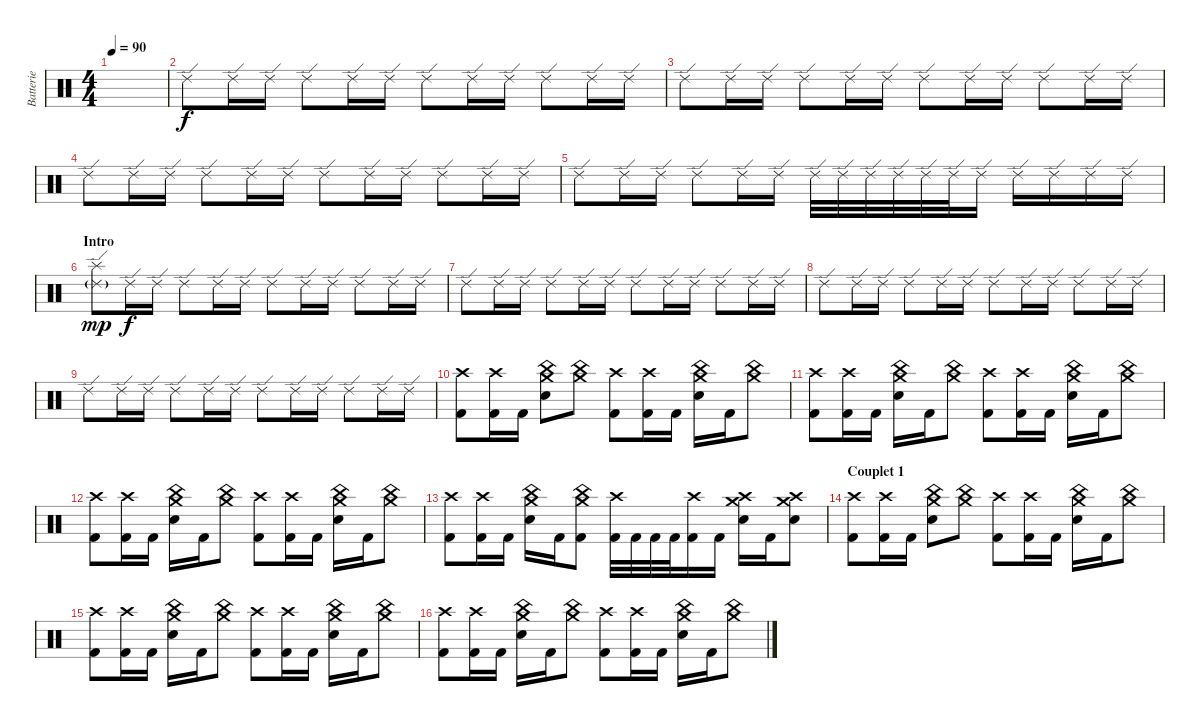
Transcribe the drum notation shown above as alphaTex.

\track ("Batterie" "Batterie") {instrument percussion}
\staff {score}
\articulation defaults
\ts (4 4)
\tempo 90
\clef neutral
\ks c
|
"Ride (edge) 2".8{volume 10} "Ride (edge) 2".16 "Ride (edge) 2".16 "Ride (edge) 2".8 "Ride (edge) 2".16 "Ride (edge) 2".16 "Ride (edge) 2".8 "Ride (edge) 2".16 "Ride (edge) 2".16 "Ride (edge) 2".8 "Ride (edge) 2".16 "Ride (edge) 2".16 |
"Ride (edge) 2".8 "Ride (edge) 2".16 "Ride (edge) 2".16 "Ride (edge) 2".8 "Ride (edge) 2".16 "Ride (edge) 2".16 "Ride (edge) 2".8 "Ride (edge) 2".16 "Ride (edge) 2".16 "Ride (edge) 2".8 "Ride (edge) 2".16 "Ride (edge) 2".16 |
"Ride (edge) 2".8 "Ride (edge) 2".16 "Ride (edge) 2".16 "Ride (edge) 2".8 "Ride (edge) 2".16 "Ride (edge) 2".16 "Ride (edge) 2".8 "Ride (edge) 2".16 "Ride (edge) 2".16 "Ride (edge) 2".8 "Ride (edge) 2".16 "Ride (edge) 2".16 |
"Ride (edge) 2".8 "Ride (edge) 2".16 "Ride (edge) 2".16 "Ride (edge) 2".8 "Ride (edge) 2".16 "Ride (edge) 2".16 "Ride (edge) 2".32 "Ride (edge) 2".32 "Ride (edge) 2".32 "Ride (edge) 2".32 "Ride (edge) 2".32 "Ride (edge) 2".32 "Ride (edge) 2".16 "Ride (edge) 2".16 "Ride (edge) 2".16 "Ride (edge) 2".16 "Ride (edge) 2".16 |
\section ("" "Intro")
("Splash (hit)" "Ride (edge) 2"{g}).8{dy mp} "Ride (edge) 2".16{dy f} "Ride (edge) 2".16 "Ride (edge) 2".8 "Ride (edge) 2".16 "Ride (edge) 2".16 "Ride (edge) 2".8 "Ride (edge) 2".16 "Ride (edge) 2".16 "Ride (edge) 2".8 "Ride (edge) 2".16 "Ride (edge) 2".16 |
"Ride (edge) 2".8 "Ride (edge) 2".16 "Ride (edge) 2".16 "Ride (edge) 2".8 "Ride (edge) 2".16 "Ride (edge) 2".16 "Ride (edge) 2".8 "Ride (edge) 2".16 "Ride (edge) 2".16 "Ride (edge) 2".8 "Ride (edge) 2".16 "Ride (edge) 2".16 |
"Ride (edge) 2".8 "Ride (edge) 2".16 "Ride (edge) 2".16 "Ride (edge) 2".8 "Ride (edge) 2".16 "Ride (edge) 2".16 "Ride (edge) 2".8 "Ride (edge) 2".16 "Ride (edge) 2".16 "Ride (edge) 2".8 "Ride (edge) 2".16 "Ride (edge) 2".16 |
"Ride (edge) 2".8 "Ride (edge) 2".16 "Ride (edge) 2".16 "Ride (edge) 2".8 "Ride (edge) 2".16 "Ride (edge) 2".16 "Ride (edge) 2".8 "Ride (edge) 2".16 "Ride (edge) 2".16 "Ride (edge) 2".8 "Ride (edge) 2".16 "Ride (edge) 2".16 |
("Crash high (hit)" "Kick (hit) 2").8{volume 16} ("Crash high (hit)" "Kick (hit) 2").16 "Kick (hit) 2".16 ("China (hit)" "Crash medium (hit)" "Snare (hit) 2").8 ("China (hit)" "Crash medium (hit)").8 ("Crash high (hit)" "Kick (hit) 2").8 ("Crash high (hit)" "Kick (hit) 2").16 "Kick (hit) 2".16 ("China (hit)" "Crash medium (hit)" "Snare (hit) 2").16 "Kick (hit) 2".16 ("China (hit)" "Crash medium (hit)").8 |
("Crash high (hit)" "Kick (hit) 2").8 ("Crash high (hit)" "Kick (hit) 2").16 "Kick (hit) 2".16 ("China (hit)" "Crash medium (hit)" "Snare (hit) 2").16 "Kick (hit) 2".16 ("China (hit)" "Crash medium (hit)").8 ("Crash high (hit)" "Kick (hit) 2").8 ("Crash high (hit)" "Kick (hit) 2").16 "Kick (hit) 2".16 ("China (hit)" "Crash medium (hit)" "Snare (hit) 2").16 "Kick (hit) 2".16 ("China (hit)" "Crash medium (hit)").8 |
("Crash high (hit)" "Kick (hit) 2").8 ("Crash high (hit)" "Kick (hit) 2").16 "Kick (hit) 2".16 ("China (hit)" "Crash medium (hit)" "Snare (hit) 2").16 "Kick (hit) 2".16 ("China (hit)" "Crash medium (hit)").8 ("Crash high (hit)" "Kick (hit) 2").8 ("Crash high (hit)" "Kick (hit) 2").16 "Kick (hit) 2".16 ("China (hit)" "Crash medium (hit)" "Snare (hit) 2").16 "Kick (hit) 2".16 ("China (hit)" "Crash medium (hit)").8 |
("Crash high (hit)" "Kick (hit) 2").8 ("Crash high (hit)" "Kick (hit) 2").16 "Kick (hit) 2".16 ("China (hit)" "Crash medium (hit)" "Snare (hit) 2").16 "Kick (hit) 2".16 ("China (hit)" "Crash medium (hit)" "Kick (hit) 2").8 ("Crash high (hit)" "Kick (hit) 2").32 "Kick (hit) 2".32 "Kick (hit) 2".32 "Kick (hit) 2".32 ("Crash high (hit)" "Kick (hit) 2").16 "Kick (hit) 2".16 ("Crash high (hit)" "Crash medium (hit)" "Snare (hit) 2").16 "Kick (hit) 2".16 ("Crash high (hit)" "Crash medium (hit)" "Snare (hit) 2").8 |
\section ("" "Couplet 1")
("Crash high (hit)" "Kick (hit) 2").8 ("Crash high (hit)" "Kick (hit) 2").16 "Kick (hit) 2".16 ("China (hit)" "Crash medium (hit)" "Snare (hit) 2").8 ("China (hit)" "Crash medium (hit)").8 ("Crash high (hit)" "Kick (hit) 2").8 ("Crash high (hit)" "Kick (hit) 2").16 "Kick (hit) 2".16 ("China (hit)" "Crash medium (hit)" "Snare (hit) 2").16 "Kick (hit) 2".16 ("China (hit)" "Crash medium (hit)").8 |
("Crash high (hit)" "Kick (hit) 2").8 ("Crash high (hit)" "Kick (hit) 2").16 "Kick (hit) 2".16 ("China (hit)" "Crash medium (hit)" "Snare (hit) 2").16 "Kick (hit) 2".16 ("China (hit)" "Crash medium (hit)").8 ("Crash high (hit)" "Kick (hit) 2").8 ("Crash high (hit)" "Kick (hit) 2").16 "Kick (hit) 2".16 ("China (hit)" "Crash medium (hit)" "Snare (hit) 2").16 "Kick (hit) 2".16 ("China (hit)" "Crash medium (hit)").8 |
("Crash high (hit)" "Kick (hit) 2").8 ("Crash high (hit)" "Kick (hit) 2").16 "Kick (hit) 2".16 ("China (hit)" "Crash medium (hit)" "Snare (hit) 2").16 "Kick (hit) 2".16 ("China (hit)" "Crash medium (hit)").8 ("Crash high (hit)" "Kick (hit) 2").8 ("Crash high (hit)" "Kick (hit) 2").16 "Kick (hit) 2".16 ("China (hit)" "Crash medium (hit)" "Snare (hit) 2").16 "Kick (hit) 2".16 ("China (hit)" "Crash medium (hit)").8
